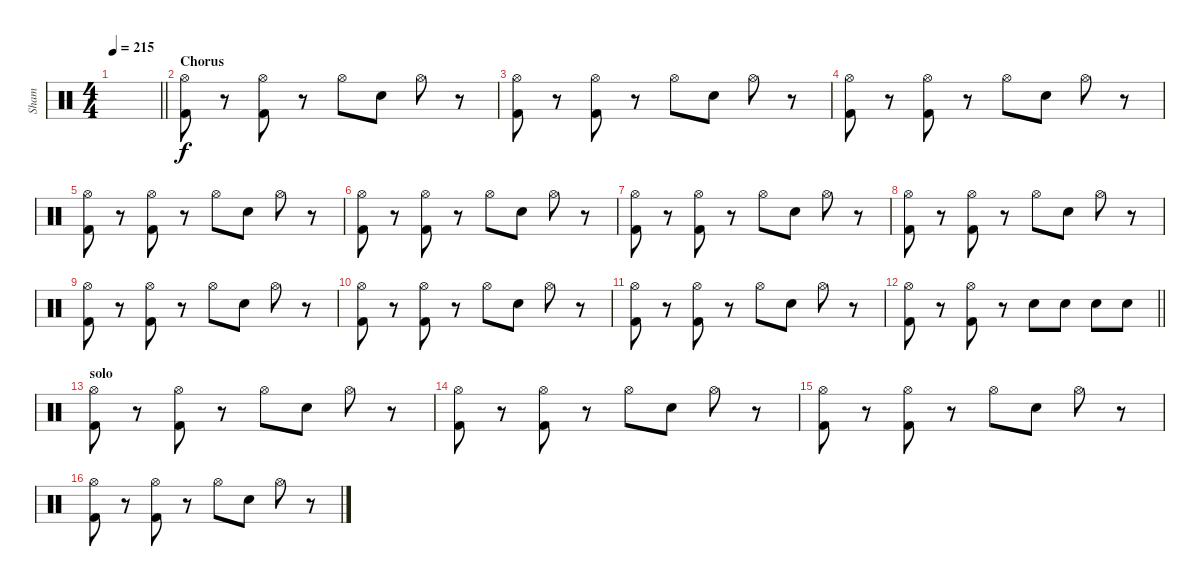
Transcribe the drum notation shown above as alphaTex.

\track ("Sham" "Sham") {instrument percussion}
\staff {score}
\articulation defaults
\ts (4 4)
\tempo 215
\clef neutral
\barLineRight lightlight
\ks c
|
\section ("" "Chorus")
("Kick (hit) 2" "Hi-Hat (open)").8 r.8 ("Kick (hit) 2" "Hi-Hat (open)").8 r.8 "Hi-Hat (open)".8 "Electric Snare (hit)".8 "Hi-Hat (open)".8 r.8 |
("Kick (hit) 2" "Hi-Hat (open)").8 r.8 ("Kick (hit) 2" "Hi-Hat (open)").8 r.8 "Hi-Hat (open)".8 "Electric Snare (hit)".8 "Hi-Hat (open)".8 r.8 |
("Kick (hit) 2" "Hi-Hat (open)").8 r.8 ("Kick (hit) 2" "Hi-Hat (open)").8 r.8 "Hi-Hat (open)".8 "Electric Snare (hit)".8 "Hi-Hat (open)".8 r.8 |
("Kick (hit) 2" "Hi-Hat (open)").8 r.8 ("Kick (hit) 2" "Hi-Hat (open)").8 r.8 "Hi-Hat (open)".8 "Electric Snare (hit)".8 "Hi-Hat (open)".8 r.8 |
("Kick (hit) 2" "Hi-Hat (open)").8 r.8 ("Kick (hit) 2" "Hi-Hat (open)").8 r.8 "Hi-Hat (open)".8 "Electric Snare (hit)".8 "Hi-Hat (open)".8 r.8 |
("Kick (hit) 2" "Hi-Hat (open)").8 r.8 ("Kick (hit) 2" "Hi-Hat (open)").8 r.8 "Hi-Hat (open)".8 "Electric Snare (hit)".8 "Hi-Hat (open)".8 r.8 |
("Kick (hit) 2" "Hi-Hat (open)").8 r.8 ("Kick (hit) 2" "Hi-Hat (open)").8 r.8 "Hi-Hat (open)".8 "Electric Snare (hit)".8 "Hi-Hat (open)".8 r.8 |
("Kick (hit) 2" "Hi-Hat (open)").8 r.8 ("Kick (hit) 2" "Hi-Hat (open)").8 r.8 "Hi-Hat (open)".8 "Electric Snare (hit)".8 "Hi-Hat (open)".8 r.8 |
("Kick (hit) 2" "Hi-Hat (open)").8 r.8 ("Kick (hit) 2" "Hi-Hat (open)").8 r.8 "Hi-Hat (open)".8 "Electric Snare (hit)".8 "Hi-Hat (open)".8 r.8 |
("Kick (hit) 2" "Hi-Hat (open)").8 r.8 ("Kick (hit) 2" "Hi-Hat (open)").8 r.8 "Hi-Hat (open)".8 "Electric Snare (hit)".8 "Hi-Hat (open)".8 r.8 |
\barLineRight lightlight
("Kick (hit) 2" "Hi-Hat (open)").8 r.8 ("Kick (hit) 2" "Hi-Hat (open)").8 r.8 "Electric Snare (hit)".8 "Electric Snare (hit)".8 "Electric Snare (hit)".8 "Electric Snare (hit)".8 |
\section ("" "solo")
("Kick (hit) 2" "Hi-Hat (open)").8 r.8 ("Kick (hit) 2" "Hi-Hat (open)").8 r.8 "Hi-Hat (open)".8 "Electric Snare (hit)".8 "Hi-Hat (open)".8 r.8 |
("Kick (hit) 2" "Hi-Hat (open)").8 r.8 ("Kick (hit) 2" "Hi-Hat (open)").8 r.8 "Hi-Hat (open)".8 "Electric Snare (hit)".8 "Hi-Hat (open)".8 r.8 |
("Kick (hit) 2" "Hi-Hat (open)").8 r.8 ("Kick (hit) 2" "Hi-Hat (open)").8 r.8 "Hi-Hat (open)".8 "Electric Snare (hit)".8 "Hi-Hat (open)".8 r.8 |
("Kick (hit) 2" "Hi-Hat (open)").8 r.8 ("Kick (hit) 2" "Hi-Hat (open)").8 r.8 "Hi-Hat (open)".8 "Electric Snare (hit)".8 "Hi-Hat (open)".8 r.8
